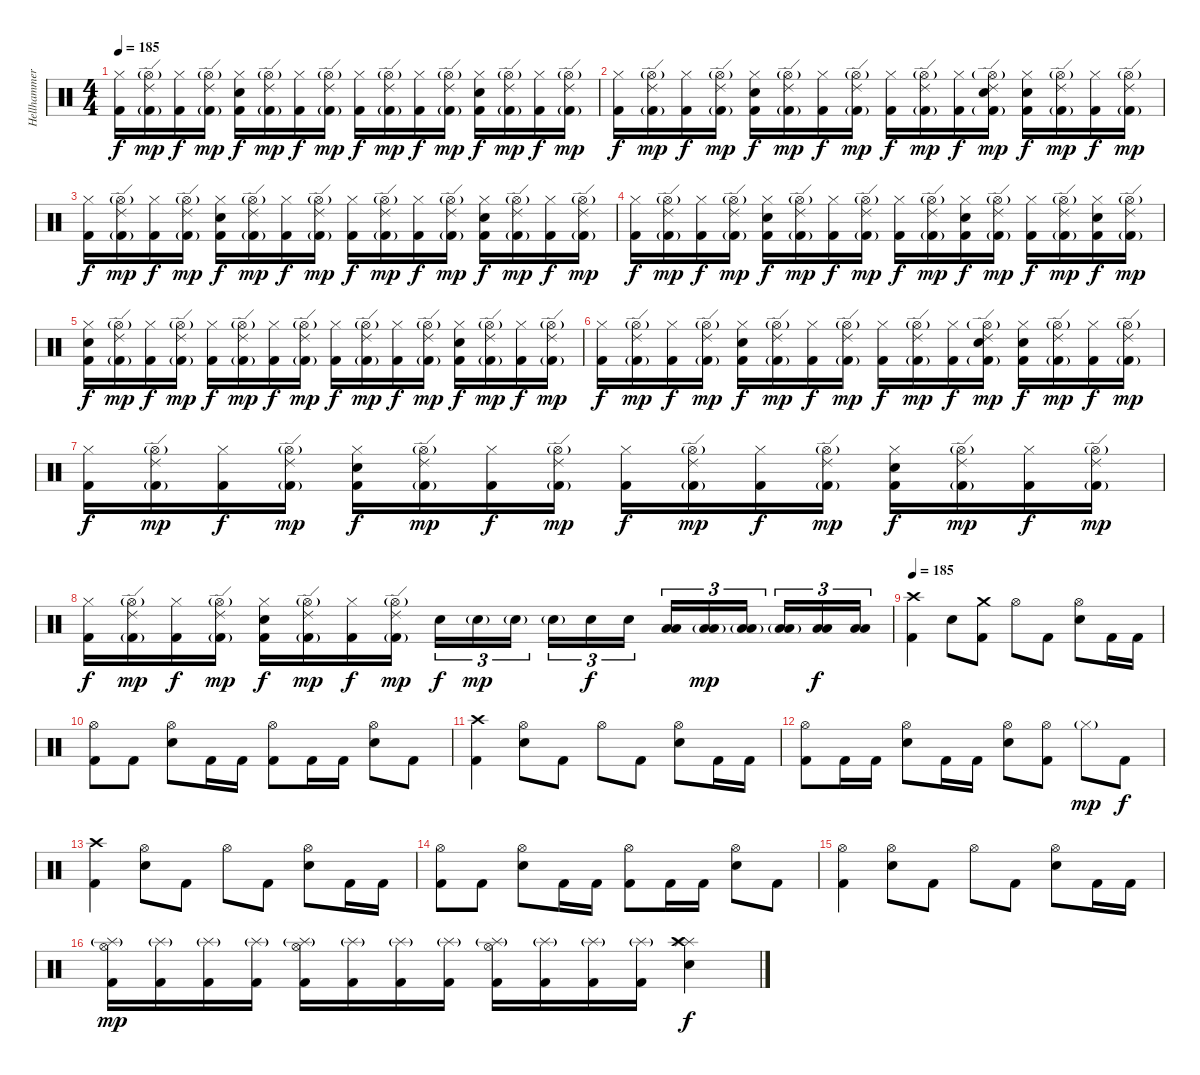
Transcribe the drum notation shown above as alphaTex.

\track ("Hellhammer" "Hellhammer") {instrument percussion}
\staff {score}
\articulation defaults
\ts (4 4)
\tempo 185
\clef neutral
\ks c
("Kick (hit) 2" "Hi-Hat (closed)").16{dy f} ("Kick (hit) 2"{g} "Hi-Hat (open)"{g} "Ride (edge) 2").16{dy mp} ("Kick (hit) 2" "Hi-Hat (closed)").16{dy f} ("Kick (hit) 2"{g} "Hi-Hat (open)"{g} "Ride (edge) 2").16{dy mp} ("Kick (hit) 2" "Electric Snare (hit)" "Hi-Hat (closed)").16{dy f} ("Kick (hit) 2"{g} "Hi-Hat (open)"{g} "Ride (edge) 2").16{dy mp} ("Kick (hit) 2" "Hi-Hat (closed)").16{dy f} ("Kick (hit) 2"{g} "Hi-Hat (open)"{g} "Ride (edge) 2").16{dy mp} ("Kick (hit) 2" "Hi-Hat (closed)").16{dy f} ("Kick (hit) 2"{g} "Hi-Hat (open)"{g} "Ride (edge) 2").16{dy mp} ("Kick (hit) 2" "Hi-Hat (closed)").16{dy f} ("Kick (hit) 2"{g} "Hi-Hat (open)"{g} "Ride (edge) 2").16{dy mp} ("Kick (hit) 2" "Electric Snare (hit)" "Hi-Hat (closed)").16{dy f} ("Kick (hit) 2"{g} "Hi-Hat (open)"{g} "Ride (edge) 2").16{dy mp} ("Kick (hit) 2" "Hi-Hat (closed)").16{dy f} ("Kick (hit) 2"{g} "Hi-Hat (open)"{g} "Ride (edge) 2").16{dy mp} |
("Kick (hit) 2" "Hi-Hat (closed)").16{dy f} ("Kick (hit) 2"{g} "Hi-Hat (open)"{g} "Ride (edge) 2").16{dy mp} ("Kick (hit) 2" "Hi-Hat (closed)").16{dy f} ("Kick (hit) 2"{g} "Hi-Hat (open)"{g} "Ride (edge) 2").16{dy mp} ("Kick (hit) 2" "Electric Snare (hit)" "Hi-Hat (closed)").16{dy f} ("Kick (hit) 2"{g} "Hi-Hat (open)"{g} "Ride (edge) 2").16{dy mp} ("Kick (hit) 2" "Hi-Hat (closed)").16{dy f} ("Kick (hit) 2"{g} "Hi-Hat (open)"{g} "Ride (edge) 2").16{dy mp} ("Kick (hit) 2" "Hi-Hat (closed)").16{dy f} ("Kick (hit) 2"{g} "Hi-Hat (open)"{g} "Ride (edge) 2").16{dy mp} ("Kick (hit) 2" "Hi-Hat (closed)").16{dy f} ("Kick (hit) 2"{g} "Electric Snare (hit)" "Hi-Hat (open)"{g} "Ride (edge) 2").16{dy mp} ("Kick (hit) 2" "Electric Snare (hit)" "Hi-Hat (closed)").16{dy f} ("Kick (hit) 2"{g} "Hi-Hat (open)"{g} "Ride (edge) 2").16{dy mp} ("Kick (hit) 2" "Hi-Hat (closed)").16{dy f} ("Kick (hit) 2"{g} "Hi-Hat (open)"{g} "Ride (edge) 2").16{dy mp} |
("Kick (hit) 2" "Hi-Hat (closed)").16{dy f} ("Kick (hit) 2"{g} "Hi-Hat (open)"{g} "Ride (edge) 2").16{dy mp} ("Kick (hit) 2" "Hi-Hat (closed)").16{dy f} ("Kick (hit) 2"{g} "Hi-Hat (open)"{g} "Ride (edge) 2").16{dy mp} ("Kick (hit) 2" "Electric Snare (hit)" "Hi-Hat (closed)").16{dy f} ("Kick (hit) 2"{g} "Hi-Hat (open)"{g} "Ride (edge) 2").16{dy mp} ("Kick (hit) 2" "Hi-Hat (closed)").16{dy f} ("Kick (hit) 2"{g} "Hi-Hat (open)"{g} "Ride (edge) 2").16{dy mp} ("Kick (hit) 2" "Hi-Hat (closed)").16{dy f} ("Kick (hit) 2"{g} "Hi-Hat (open)"{g} "Ride (edge) 2").16{dy mp} ("Kick (hit) 2" "Hi-Hat (closed)").16{dy f} ("Kick (hit) 2"{g} "Hi-Hat (open)"{g} "Ride (edge) 2").16{dy mp} ("Kick (hit) 2" "Electric Snare (hit)" "Hi-Hat (closed)").16{dy f} ("Kick (hit) 2"{g} "Hi-Hat (open)"{g} "Ride (edge) 2").16{dy mp} ("Kick (hit) 2" "Hi-Hat (closed)").16{dy f} ("Kick (hit) 2"{g} "Hi-Hat (open)"{g} "Ride (edge) 2").16{dy mp} |
("Kick (hit) 2" "Hi-Hat (closed)").16{dy f} ("Kick (hit) 2"{g} "Hi-Hat (open)"{g} "Ride (edge) 2").16{dy mp} ("Kick (hit) 2" "Hi-Hat (closed)").16{dy f} ("Kick (hit) 2"{g} "Hi-Hat (open)"{g} "Ride (edge) 2").16{dy mp} ("Kick (hit) 2" "Electric Snare (hit)" "Hi-Hat (closed)").16{dy f} ("Kick (hit) 2"{g} "Hi-Hat (open)"{g} "Ride (edge) 2").16{dy mp} ("Kick (hit) 2" "Hi-Hat (closed)").16{dy f} ("Kick (hit) 2"{g} "Hi-Hat (open)"{g} "Ride (edge) 2").16{dy mp} ("Kick (hit) 2" "Hi-Hat (closed)").16{dy f} ("Kick (hit) 2"{g} "Hi-Hat (open)"{g} "Ride (edge) 2").16{dy mp} ("Kick (hit) 2" "Electric Snare (hit)" "Hi-Hat (closed)").16{dy f} ("Kick (hit) 2"{g} "Hi-Hat (open)"{g} "Ride (edge) 2").16{dy mp} ("Kick (hit) 2" "Hi-Hat (closed)").16{dy f} ("Kick (hit) 2"{g} "Hi-Hat (open)"{g} "Ride (edge) 2").16{dy mp} ("Kick (hit) 2" "Electric Snare (hit)" "Hi-Hat (closed)").16{dy f} ("Kick (hit) 2"{g} "Hi-Hat (open)"{g} "Ride (edge) 2").16{dy mp} |
("Kick (hit) 2" "Electric Snare (hit)" "Hi-Hat (closed)").16{dy f} ("Kick (hit) 2"{g} "Hi-Hat (open)"{g} "Ride (edge) 2").16{dy mp} ("Kick (hit) 2" "Hi-Hat (closed)").16{dy f} ("Kick (hit) 2"{g} "Hi-Hat (open)"{g} "Ride (edge) 2").16{dy mp} ("Kick (hit) 2" "Hi-Hat (closed)").16{dy f} ("Kick (hit) 2"{g} "Hi-Hat (open)"{g} "Ride (edge) 2").16{dy mp} ("Kick (hit) 2" "Hi-Hat (closed)").16{dy f} ("Kick (hit) 2"{g} "Hi-Hat (open)"{g} "Ride (edge) 2").16{dy mp} ("Kick (hit) 2" "Hi-Hat (closed)").16{dy f} ("Kick (hit) 2"{g} "Hi-Hat (open)"{g} "Ride (edge) 2").16{dy mp} ("Kick (hit) 2" "Hi-Hat (closed)").16{dy f} ("Kick (hit) 2"{g} "Hi-Hat (open)"{g} "Ride (edge) 2").16{dy mp} ("Kick (hit) 2" "Electric Snare (hit)" "Hi-Hat (closed)").16{dy f} ("Kick (hit) 2"{g} "Hi-Hat (open)"{g} "Ride (edge) 2").16{dy mp} ("Kick (hit) 2" "Hi-Hat (closed)").16{dy f} ("Kick (hit) 2"{g} "Hi-Hat (open)"{g} "Ride (edge) 2").16{dy mp} |
("Kick (hit) 2" "Hi-Hat (closed)").16{dy f} ("Kick (hit) 2"{g} "Hi-Hat (open)"{g} "Ride (edge) 2").16{dy mp} ("Kick (hit) 2" "Hi-Hat (closed)").16{dy f} ("Kick (hit) 2"{g} "Hi-Hat (open)"{g} "Ride (edge) 2").16{dy mp} ("Kick (hit) 2" "Electric Snare (hit)" "Hi-Hat (closed)").16{dy f} ("Kick (hit) 2"{g} "Hi-Hat (open)"{g} "Ride (edge) 2").16{dy mp} ("Kick (hit) 2" "Hi-Hat (closed)").16{dy f} ("Kick (hit) 2"{g} "Hi-Hat (open)"{g} "Ride (edge) 2").16{dy mp} ("Kick (hit) 2" "Hi-Hat (closed)").16{dy f} ("Kick (hit) 2"{g} "Hi-Hat (open)"{g} "Ride (edge) 2").16{dy mp} ("Kick (hit) 2" "Hi-Hat (closed)").16{dy f} ("Kick (hit) 2"{g} "Electric Snare (hit)" "Hi-Hat (open)"{g} "Ride (edge) 2").16{dy mp} ("Kick (hit) 2" "Electric Snare (hit)" "Hi-Hat (closed)").16{dy f} ("Kick (hit) 2"{g} "Hi-Hat (open)"{g} "Ride (edge) 2").16{dy mp} ("Kick (hit) 2" "Hi-Hat (closed)").16{dy f} ("Kick (hit) 2"{g} "Hi-Hat (open)"{g} "Ride (edge) 2").16{dy mp} |
("Kick (hit) 2" "Hi-Hat (closed)").16{dy f} ("Kick (hit) 2"{g} "Hi-Hat (open)"{g} "Ride (edge) 2").16{dy mp} ("Kick (hit) 2" "Hi-Hat (closed)").16{dy f} ("Kick (hit) 2"{g} "Hi-Hat (open)"{g} "Ride (edge) 2").16{dy mp} ("Kick (hit) 2" "Electric Snare (hit)" "Hi-Hat (closed)").16{dy f} ("Kick (hit) 2"{g} "Hi-Hat (open)"{g} "Ride (edge) 2").16{dy mp} ("Kick (hit) 2" "Hi-Hat (closed)").16{dy f} ("Kick (hit) 2"{g} "Hi-Hat (open)"{g} "Ride (edge) 2").16{dy mp} ("Kick (hit) 2" "Hi-Hat (closed)").16{dy f} ("Kick (hit) 2"{g} "Hi-Hat (open)"{g} "Ride (edge) 2").16{dy mp} ("Kick (hit) 2" "Hi-Hat (closed)").16{dy f} ("Kick (hit) 2"{g} "Hi-Hat (open)"{g} "Ride (edge) 2").16{dy mp} ("Kick (hit) 2" "Electric Snare (hit)" "Hi-Hat (closed)").16{dy f} ("Kick (hit) 2"{g} "Hi-Hat (open)"{g} "Ride (edge) 2").16{dy mp} ("Kick (hit) 2" "Hi-Hat (closed)").16{dy f} ("Kick (hit) 2"{g} "Hi-Hat (open)"{g} "Ride (edge) 2").16{dy mp} |
("Kick (hit) 2" "Hi-Hat (closed)").16{dy f} ("Kick (hit) 2"{g} "Hi-Hat (open)"{g} "Ride (edge) 2").16{dy mp} ("Kick (hit) 2" "Hi-Hat (closed)").16{dy f} ("Kick (hit) 2"{g} "Hi-Hat (open)"{g} "Ride (edge) 2").16{dy mp} ("Kick (hit) 2" "Electric Snare (hit)" "Hi-Hat (closed)").16{dy f} ("Kick (hit) 2"{g} "Hi-Hat (open)"{g} "Ride (edge) 2").16{dy mp} ("Kick (hit) 2" "Hi-Hat (closed)").16{dy f} ("Kick (hit) 2"{g} "Hi-Hat (open)"{g} "Ride (edge) 2").16{dy mp} "Electric Snare (hit)".16{tu (3 2) dy f} "Electric Snare (hit)"{g}.16{tu (3 2) dy mp} "Electric Snare (hit)"{g}.16{tu (3 2)} "Electric Snare (hit)"{g}.16{tu (3 2)} "Electric Snare (hit)".16{tu (3 2) dy f} "Electric Snare (hit)".16{tu (3 2)} ("Low Tom (hit)" "Low Tom (hit)").16{tu (3 2)} ("Low Tom (hit)"{g} "Low Tom (hit)"{g}).16{tu (3 2) dy mp} ("Low Tom (hit)"{g} "Low Tom (hit)"{g}).16{tu (3 2)} ("Low Tom (hit)"{g} "Low Tom (hit)"{g}).16{tu (3 2)} ("Low Tom (hit)" "Low Tom (hit)").16{tu (3 2) dy f} ("Low Tom (hit)" "Low Tom (hit)").16{tu (3 2)} |
\tempo 185
("Kick (hit) 2" "Crash high (hit)").4 "Electric Snare (hit)".8 ("Kick (hit) 2" "Crash medium (hit)").8 "Hi-Hat (open)".8 "Kick (hit) 2".8 ("Electric Snare (hit)" "Hi-Hat (open)").8 "Kick (hit) 2".16 "Kick (hit) 2".16 |
("Kick (hit) 2" "Hi-Hat (open)").8 "Kick (hit) 2".8 ("Electric Snare (hit)" "Hi-Hat (open)").8 "Kick (hit) 2".16 "Kick (hit) 2".16 ("Kick (hit) 2" "Hi-Hat (open)").8 "Kick (hit) 2".16 "Kick (hit) 2".16 ("Electric Snare (hit)" "Hi-Hat (open)").8 "Kick (hit) 2".8 |
("Kick (hit) 2" "Crash high (hit)").4 ("Electric Snare (hit)" "Hi-Hat (open)").8 "Kick (hit) 2".8 "Hi-Hat (open)".8 "Kick (hit) 2".8 ("Electric Snare (hit)" "Hi-Hat (open)").8 "Kick (hit) 2".16 "Kick (hit) 2".16 |
("Kick (hit) 2" "Hi-Hat (open)").8 "Kick (hit) 2".16 "Kick (hit) 2".16 ("Electric Snare (hit)" "Hi-Hat (open)").8 "Kick (hit) 2".16 "Kick (hit) 2".16 ("Electric Snare (hit)" "Hi-Hat (open)").8 ("Kick (hit) 2" "Hi-Hat (open)").8 "Hi-Hat (closed)"{g}.8{dy mp} "Kick (hit) 2".8{dy f} |
("Kick (hit) 2" "Crash high (hit)").4 ("Electric Snare (hit)" "Hi-Hat (open)").8 "Kick (hit) 2".8 "Hi-Hat (open)".8 "Kick (hit) 2".8 ("Electric Snare (hit)" "Hi-Hat (open)").8 "Kick (hit) 2".16 "Kick (hit) 2".16 |
("Kick (hit) 2" "Hi-Hat (open)").8 "Kick (hit) 2".8 ("Electric Snare (hit)" "Hi-Hat (open)").8 "Kick (hit) 2".16 "Kick (hit) 2".16 ("Kick (hit) 2" "Hi-Hat (open)").8 "Kick (hit) 2".16 "Kick (hit) 2".16 ("Electric Snare (hit)" "Hi-Hat (open)").8 "Kick (hit) 2".8 |
("Kick (hit) 2" "Hi-Hat (open)").4 ("Electric Snare (hit)" "Hi-Hat (open)").8 "Kick (hit) 2".8 "Hi-Hat (open)".8 "Kick (hit) 2".8 ("Electric Snare (hit)" "Hi-Hat (open)").8 "Kick (hit) 2".16 "Kick (hit) 2".16 |
("Kick (hit) 2" "Splash (hit)"{g} "Hi-Hat (open)").16{dy mp} ("Kick (hit) 2" "Splash (hit)"{g}).16 ("Kick (hit) 2" "Splash (hit)"{g}).16 ("Kick (hit) 2" "Splash (hit)"{g}).16 ("Kick (hit) 2" "Splash (hit)"{g} "Hi-Hat (open)").16 ("Kick (hit) 2" "Splash (hit)"{g}).16 ("Kick (hit) 2" "Splash (hit)"{g}).16 ("Kick (hit) 2" "Splash (hit)"{g}).16 ("Kick (hit) 2" "Splash (hit)"{g} "Hi-Hat (open)").16 ("Kick (hit) 2" "Splash (hit)"{g}).16 ("Kick (hit) 2" "Splash (hit)"{g}).16 ("Kick (hit) 2" "Splash (hit)"{g}).16 ("Electric Snare (hit)" "Splash (hit)" "Splash (hit)" "Crash high (hit)").4{dy f}
